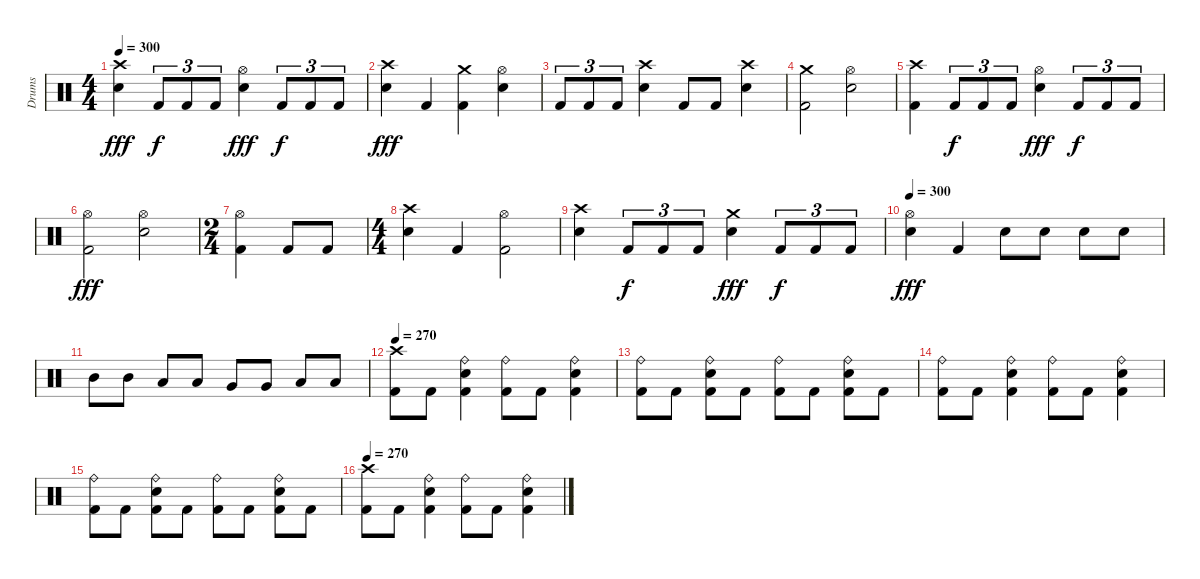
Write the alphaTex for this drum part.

\track ("Drums" "Drums") {instrument percussion}
\staff {score}
\articulation defaults
\ts (4 4)
\tempo 300
\clef neutral
\ks c
("Snare (hit) 2" "Crash high (hit)").4{dy fff} "Kick (hit) 2".8{tu (3 2) dy f} "Kick (hit) 2".8{tu (3 2)} "Kick (hit) 2".8{tu (3 2)} ("Snare (hit) 2" "Hi-Hat (open)").4{dy fff} "Kick (hit) 2".8{tu (3 2) dy f} "Kick (hit) 2".8{tu (3 2)} "Kick (hit) 2".8{tu (3 2)} |
("Snare (hit) 2" "Crash high (hit)").4{dy fff} "Kick (hit) 2".4 ("Kick (hit) 2" "Crash medium (hit)").4 ("Snare (hit) 2" "Hi-Hat (open)").4 |
"Kick (hit) 2".8{tu (3 2)} "Kick (hit) 2".8{tu (3 2)} "Kick (hit) 2".8{tu (3 2)} ("Snare (hit) 2" "Crash high (hit)").4 "Kick (hit) 2".8 "Kick (hit) 2".8 ("Snare (hit) 2" "Crash high (hit)").4 |
("Kick (hit) 2" "Crash medium (hit)").2 ("Snare (hit) 2" "Hi-Hat (open)").2 |
("Kick (hit) 2" "Crash high (hit)").4 "Kick (hit) 2".8{tu (3 2) dy f} "Kick (hit) 2".8{tu (3 2)} "Kick (hit) 2".8{tu (3 2)} ("Snare (hit) 2" "Hi-Hat (open)").4{dy fff} "Kick (hit) 2".8{tu (3 2) dy f} "Kick (hit) 2".8{tu (3 2)} "Kick (hit) 2".8{tu (3 2)} |
("Kick (hit) 2" "Hi-Hat (open)").2{dy fff} ("Snare (hit) 2" "Hi-Hat (open)").2 |
\ts (2 4)
("Kick (hit) 2" "Hi-Hat (open)").4 "Kick (hit) 2".8 "Kick (hit) 2".8 |
\ts (4 4)
("Snare (hit) 2" "Crash high (hit)").4 "Kick (hit) 2".4 ("Kick (hit) 2" "Hi-Hat (open)").2 |
("Snare (hit) 2" "Crash high (hit)").4 "Kick (hit) 2".8{tu (3 2) dy f} "Kick (hit) 2".8{tu (3 2)} "Kick (hit) 2".8{tu (3 2)} ("Snare (hit) 2" "Crash medium (hit)").4{dy fff} "Kick (hit) 2".8{tu (3 2) dy f} "Kick (hit) 2".8{tu (3 2)} "Kick (hit) 2".8{tu (3 2)} |
\tempo 300
("Snare (hit) 2" "Hi-Hat (open)").4{dy fff} "Kick (hit) 2".4 "Snare (hit) 2".8 "Snare (hit) 2".8 "Snare (hit) 2".8 "Snare (hit) 2".8 |
"Mid Tom (hit)".8 "Mid Tom (hit)".8 "Low Tom (hit)".8 "Low Tom (hit)".8 "Very Low Tom (hit)".8 "Very Low Tom (hit)".8 "Low Floor Tom (hit)".8 "Low Floor Tom (hit)".8 |
\tempo 270
("Kick (hit) 2" "Crash high (hit)").8 "Kick (hit) 2".8 ("Snare (hit) 2" "Ride (bell)" "Kick (hit) 2").4 ("Kick (hit) 2" "Ride (bell)").8 "Kick (hit) 2".8 ("Snare (hit) 2" "Ride (bell)" "Kick (hit) 2").4 |
("Kick (hit) 2" "Ride (bell)").8 "Kick (hit) 2".8 ("Snare (hit) 2" "Ride (bell)" "Kick (hit) 2").8 "Kick (hit) 2".8 ("Kick (hit) 2" "Ride (bell)").8 "Kick (hit) 2".8 ("Snare (hit) 2" "Ride (bell)" "Kick (hit) 2").8 "Kick (hit) 2".8 |
("Kick (hit) 2" "Ride (bell)").8 "Kick (hit) 2".8 ("Snare (hit) 2" "Ride (bell)" "Kick (hit) 2").4 ("Kick (hit) 2" "Ride (bell)").8 "Kick (hit) 2".8 ("Snare (hit) 2" "Ride (bell)" "Kick (hit) 2").4 |
("Kick (hit) 2" "Ride (bell)").8 "Kick (hit) 2".8 ("Snare (hit) 2" "Ride (bell)" "Kick (hit) 2").8 "Kick (hit) 2".8 ("Kick (hit) 2" "Ride (bell)").8 "Kick (hit) 2".8 ("Snare (hit) 2" "Ride (bell)" "Kick (hit) 2").8 "Kick (hit) 2".8 |
\tempo 270
("Kick (hit) 2" "Crash high (hit)").8 "Kick (hit) 2".8 ("Snare (hit) 2" "Ride (bell)" "Kick (hit) 2").4 ("Kick (hit) 2" "Ride (bell)").8 "Kick (hit) 2".8 ("Snare (hit) 2" "Ride (bell)" "Kick (hit) 2").4
